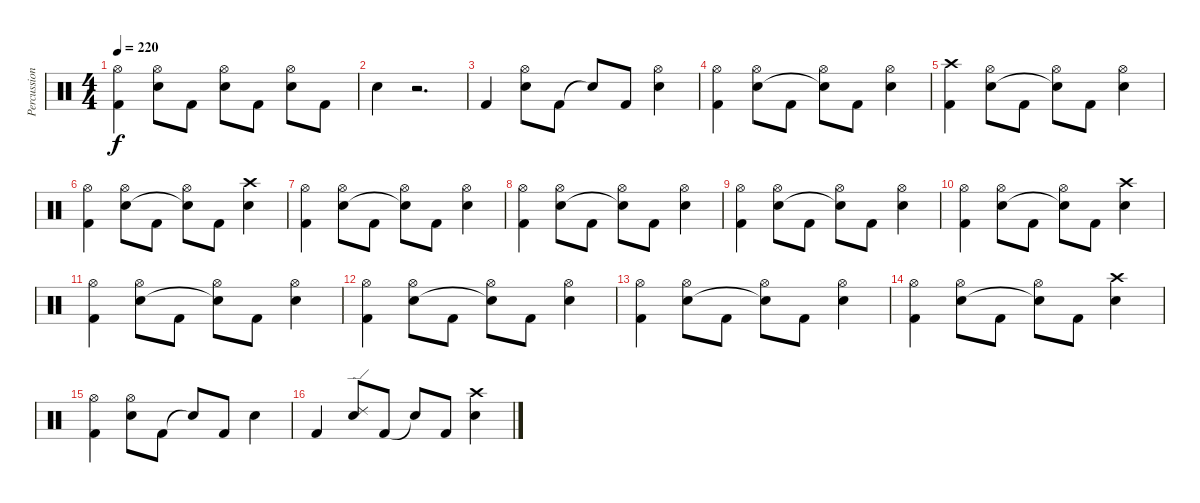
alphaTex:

\track ("Percussion" "Percussion") {instrument percussion}
\staff {score}
\articulation defaults
\ts (4 4)
\tempo 220
\clef neutral
\ks c
("Hi-Hat (open)" "Kick (hit) 2").4{dy f} ("Hi-Hat (open)" "Snare (hit) 2").8 "Kick (hit) 2".8 ("Hi-Hat (open)" "Snare (hit) 2").8 "Kick (hit) 2".8 ("Hi-Hat (open)" "Snare (hit) 2").8 "Kick (hit) 2".8 |
"Snare (hit) 2".4 r.2{d} |
"Kick (hit) 2".4 ("Hi-Hat (open)" "Snare (hit) 2").8 "Kick (hit) 2".8 "Snare (hit)"{t}.8 "Kick (hit) 2".8 ("Hi-Hat (open)" "Snare (hit) 2").4 |
("Hi-Hat (open)" "Kick (hit) 2").4 ("Hi-Hat (open)" "Snare (hit) 2").8 "Kick (hit) 2".8 ("Hi-Hat (open)" "Snare (hit)"{t}).8 "Kick (hit) 2".8 ("Hi-Hat (open)" "Snare (hit) 2").4 |
("Crash high (hit)" "Kick (hit) 2").4 ("Hi-Hat (open)" "Snare (hit) 2").8 "Kick (hit) 2".8 ("Hi-Hat (open)" "Snare (hit)"{t}).8 "Kick (hit) 2".8 ("Hi-Hat (open)" "Snare (hit) 2").4 |
("Hi-Hat (open)" "Kick (hit) 2").4 ("Hi-Hat (open)" "Snare (hit) 2").8 "Kick (hit) 2".8 ("Hi-Hat (open)" "Snare (hit)"{t}).8 "Kick (hit) 2".8 ("Crash high (hit)" "Snare (hit) 2").4 |
("Hi-Hat (open)" "Kick (hit) 2").4 ("Hi-Hat (open)" "Snare (hit) 2").8 "Kick (hit) 2".8 ("Hi-Hat (open)" "Snare (hit)"{t}).8 "Kick (hit) 2".8 ("Hi-Hat (open)" "Snare (hit) 2").4 |
("Hi-Hat (open)" "Kick (hit) 2").4 ("Hi-Hat (open)" "Snare (hit) 2").8 "Kick (hit) 2".8 ("Hi-Hat (open)" "Snare (hit)"{t}).8 "Kick (hit) 2".8 ("Hi-Hat (open)" "Snare (hit) 2").4 |
("Hi-Hat (open)" "Kick (hit) 2").4 ("Hi-Hat (open)" "Snare (hit) 2").8 "Kick (hit) 2".8 ("Hi-Hat (open)" "Snare (hit)"{t}).8 "Kick (hit) 2".8 ("Hi-Hat (open)" "Snare (hit) 2").4 |
("Hi-Hat (open)" "Kick (hit) 2").4 ("Hi-Hat (open)" "Snare (hit) 2").8 "Kick (hit) 2".8 ("Hi-Hat (open)" "Snare (hit)"{t}).8 "Kick (hit) 2".8 ("Crash high (hit)" "Snare (hit) 2").4 |
("Hi-Hat (open)" "Kick (hit) 2").4 ("Hi-Hat (open)" "Snare (hit) 2").8 "Kick (hit) 2".8 ("Hi-Hat (open)" "Snare (hit)"{t}).8 "Kick (hit) 2".8 ("Hi-Hat (open)" "Snare (hit) 2").4 |
("Hi-Hat (open)" "Kick (hit) 2").4 ("Hi-Hat (open)" "Snare (hit) 2").8 "Kick (hit) 2".8 ("Hi-Hat (open)" "Snare (hit)"{t}).8 "Kick (hit) 2".8 ("Hi-Hat (open)" "Snare (hit) 2").4 |
("Hi-Hat (open)" "Kick (hit) 2").4 ("Hi-Hat (open)" "Snare (hit) 2").8 "Kick (hit) 2".8 ("Hi-Hat (open)" "Snare (hit)"{t}).8 "Kick (hit) 2".8 ("Hi-Hat (open)" "Snare (hit) 2").4 |
("Hi-Hat (open)" "Kick (hit) 2").4 ("Hi-Hat (open)" "Snare (hit) 2").8 "Kick (hit) 2".8 ("Hi-Hat (open)" "Snare (hit)"{t}).8 "Kick (hit) 2".8 ("Crash high (hit)" "Snare (hit) 2").4 |
("Hi-Hat (open)" "Kick (hit) 2").4 ("Hi-Hat (open)" "Snare (hit) 2").8 "Kick (hit) 2".8 "Snare (hit)"{t}.8 "Kick (hit) 2".8 "Snare (hit) 2".4 |
"Kick (hit) 2".4 ("Ride (edge) 2" "Snare (hit) 2").8 "Kick (hit) 2".8 "Snare (hit)"{t}.8 "Kick (hit) 2".8 ("Crash high (hit)" "Snare (hit) 2").4
